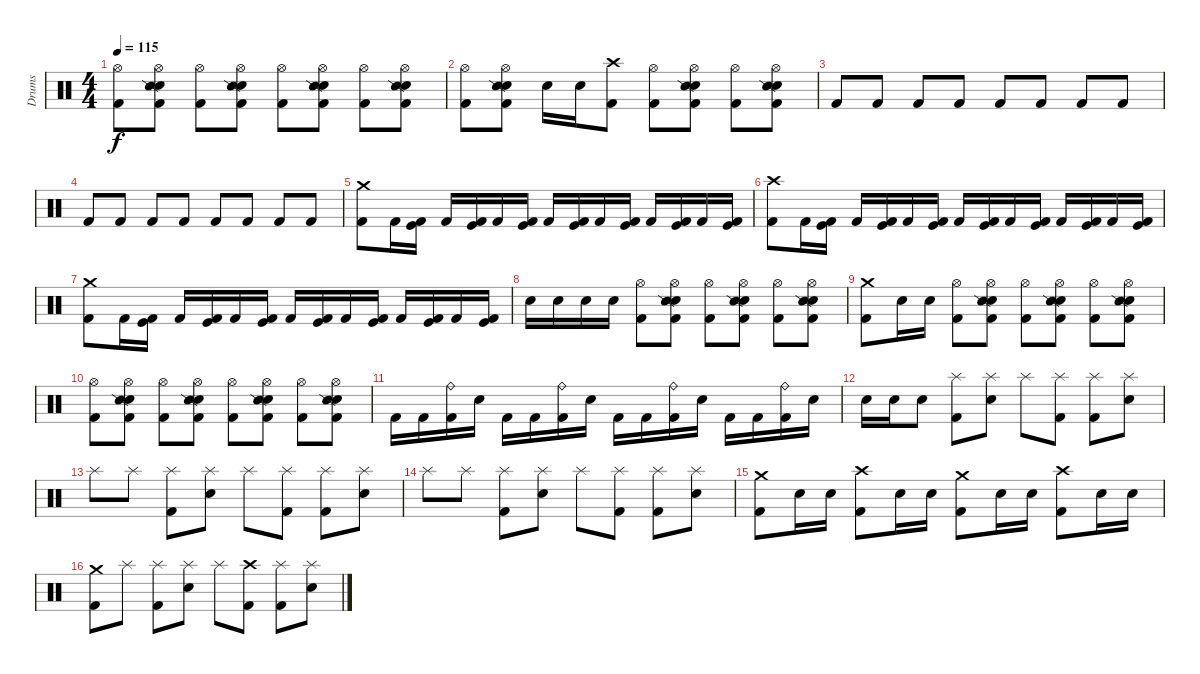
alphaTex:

\track ("Drums" "Drums") {instrument percussion}
\staff {score}
\articulation defaults
\ts (4 4)
\tempo 115
\clef neutral
\ks c
("Hi-Hat (open)" "Kick (hit) 2").8{dy f} ("Hi-Hat (open)" "Electric Snare (hit)" "Snare (side stick) 2" "Kick (hit) 2").8 ("Hi-Hat (open)" "Kick (hit) 2").8 ("Hi-Hat (open)" "Electric Snare (hit)" "Snare (side stick) 2" "Kick (hit) 2").8 ("Hi-Hat (open)" "Kick (hit) 2").8 ("Hi-Hat (open)" "Electric Snare (hit)" "Snare (side stick) 2" "Kick (hit) 2").8 ("Hi-Hat (open)" "Kick (hit) 2").8 ("Hi-Hat (open)" "Electric Snare (hit)" "Snare (side stick) 2" "Kick (hit) 2").8 |
("Hi-Hat (open)" "Kick (hit) 2").8 ("Hi-Hat (open)" "Electric Snare (hit)" "Snare (side stick) 2" "Kick (hit) 2").8 "Electric Snare (hit)".16 "Electric Snare (hit)".16 ("Crash high (hit)" "Kick (hit) 2").8 ("Hi-Hat (open)" "Kick (hit) 2").8 ("Hi-Hat (open)" "Electric Snare (hit)" "Snare (side stick) 2" "Kick (hit) 2").8 ("Hi-Hat (open)" "Kick (hit) 2").8 ("Hi-Hat (open)" "Electric Snare (hit)" "Snare (side stick) 2" "Kick (hit) 2").8 |
"Kick (hit) 2".8 "Kick (hit) 2".8 "Kick (hit) 2".8 "Kick (hit) 2".8 "Kick (hit) 2".8 "Kick (hit) 2".8 "Kick (hit) 2".8 "Kick (hit) 2".8 |
"Kick (hit) 2".8 "Kick (hit) 2".8 "Kick (hit) 2".8 "Kick (hit) 2".8 "Kick (hit) 2".8 "Kick (hit) 2".8 "Kick (hit) 2".8 "Kick (hit) 2".8 |
("Crash medium (hit)" "Kick (hit) 2").8 "Kick (hit) 2".16 ("Kick (hit)" "Kick (hit) 2").16 "Kick (hit) 2".16 ("Kick (hit)" "Kick (hit) 2").16 "Kick (hit) 2".16 ("Kick (hit)" "Kick (hit) 2").16 "Kick (hit) 2".16 ("Kick (hit)" "Kick (hit) 2").16 "Kick (hit) 2".16 ("Kick (hit)" "Kick (hit) 2").16 "Kick (hit) 2".16 ("Kick (hit)" "Kick (hit) 2").16 "Kick (hit) 2".16 ("Kick (hit)" "Kick (hit) 2").16 |
("Crash high (hit)" "Kick (hit) 2").8 "Kick (hit) 2".16 ("Kick (hit)" "Kick (hit) 2").16 "Kick (hit) 2".16 ("Kick (hit)" "Kick (hit) 2").16 "Kick (hit) 2".16 ("Kick (hit)" "Kick (hit) 2").16 "Kick (hit) 2".16 ("Kick (hit)" "Kick (hit) 2").16 "Kick (hit) 2".16 ("Kick (hit)" "Kick (hit) 2").16 "Kick (hit) 2".16 ("Kick (hit)" "Kick (hit) 2").16 "Kick (hit) 2".16 ("Kick (hit)" "Kick (hit) 2").16 |
("Crash medium (hit)" "Kick (hit) 2").8 "Kick (hit) 2".16 ("Kick (hit)" "Kick (hit) 2").16 "Kick (hit) 2".16 ("Kick (hit)" "Kick (hit) 2").16 "Kick (hit) 2".16 ("Kick (hit)" "Kick (hit) 2").16 "Kick (hit) 2".16 ("Kick (hit)" "Kick (hit) 2").16 "Kick (hit) 2".16 ("Kick (hit)" "Kick (hit) 2").16 "Kick (hit) 2".16 ("Kick (hit)" "Kick (hit) 2").16 "Kick (hit) 2".16 ("Kick (hit)" "Kick (hit) 2").16 |
"Electric Snare (hit)".16 "Electric Snare (hit)".16 "Electric Snare (hit)".16 "Electric Snare (hit)".16 ("Hi-Hat (open)" "Kick (hit) 2").8 ("Hi-Hat (open)" "Electric Snare (hit)" "Snare (side stick) 2" "Kick (hit) 2").8 ("Hi-Hat (open)" "Kick (hit) 2").8 ("Hi-Hat (open)" "Electric Snare (hit)" "Snare (side stick) 2" "Kick (hit) 2").8 ("Hi-Hat (open)" "Kick (hit) 2").8 ("Hi-Hat (open)" "Electric Snare (hit)" "Snare (side stick) 2" "Kick (hit) 2").8 |
("Crash medium (hit)" "Kick (hit) 2").8 "Electric Snare (hit)".16 "Electric Snare (hit)".16 ("Hi-Hat (open)" "Kick (hit) 2").8 ("Hi-Hat (open)" "Electric Snare (hit)" "Snare (side stick) 2" "Kick (hit) 2").8 ("Hi-Hat (open)" "Kick (hit) 2").8 ("Hi-Hat (open)" "Electric Snare (hit)" "Snare (side stick) 2" "Kick (hit) 2").8 ("Hi-Hat (open)" "Kick (hit) 2").8 ("Hi-Hat (open)" "Electric Snare (hit)" "Snare (side stick) 2" "Kick (hit) 2").8 |
("Hi-Hat (open)" "Kick (hit) 2").8 ("Hi-Hat (open)" "Electric Snare (hit)" "Snare (side stick) 2" "Kick (hit) 2").8 ("Hi-Hat (open)" "Kick (hit) 2").8 ("Hi-Hat (open)" "Electric Snare (hit)" "Snare (side stick) 2" "Kick (hit) 2").8 ("Hi-Hat (open)" "Kick (hit) 2").8 ("Hi-Hat (open)" "Electric Snare (hit)" "Snare (side stick) 2" "Kick (hit) 2").8 ("Hi-Hat (open)" "Kick (hit) 2").8 ("Hi-Hat (open)" "Electric Snare (hit)" "Snare (side stick) 2" "Kick (hit) 2").8 |
"Kick (hit) 2".16 "Kick (hit) 2".16 ("Ride (bell)" "Kick (hit) 2").16 "Electric Snare (hit)".16 "Kick (hit) 2".16 "Kick (hit) 2".16 ("Ride (bell)" "Kick (hit) 2").16 "Electric Snare (hit)".16 "Kick (hit) 2".16 "Kick (hit) 2".16 ("Ride (bell)" "Kick (hit) 2").16 "Electric Snare (hit)".16 "Kick (hit) 2".16 "Kick (hit) 2".16 ("Ride (bell)" "Kick (hit) 2").16 "Electric Snare (hit)".16 |
"Electric Snare (hit)".16 "Electric Snare (hit)".16 "Electric Snare (hit)".8 ("Splash (hit)" "Kick (hit) 2").8 ("Splash (hit)" "Electric Snare (hit)").8 "Splash (hit)".8 ("Splash (hit)" "Kick (hit) 2").8 ("Splash (hit)" "Kick (hit) 2").8 ("Splash (hit)" "Electric Snare (hit)").8 |
"Splash (hit)".8 "Splash (hit)".8 ("Splash (hit)" "Kick (hit) 2").8 ("Splash (hit)" "Electric Snare (hit)").8 "Splash (hit)".8 ("Splash (hit)" "Kick (hit) 2").8 ("Splash (hit)" "Kick (hit) 2").8 ("Splash (hit)" "Electric Snare (hit)").8 |
"Splash (hit)".8 "Splash (hit)".8 ("Splash (hit)" "Kick (hit) 2").8 ("Splash (hit)" "Electric Snare (hit)").8 "Splash (hit)".8 ("Splash (hit)" "Kick (hit) 2").8 ("Splash (hit)" "Kick (hit) 2").8 ("Splash (hit)" "Electric Snare (hit)").8 |
("Crash medium (hit)" "Kick (hit) 2").8 "Electric Snare (hit)".16 "Electric Snare (hit)".16 ("Crash high (hit)" "Kick (hit) 2").8 "Electric Snare (hit)".16 "Electric Snare (hit)".16 ("Crash medium (hit)" "Kick (hit) 2").8 "Electric Snare (hit)".16 "Electric Snare (hit)".16 ("Crash high (hit)" "Kick (hit) 2").8 "Electric Snare (hit)".16 "Electric Snare (hit)".16 |
("Crash medium (hit)" "Kick (hit) 2").8 "Splash (hit)".8 ("Splash (hit)" "Kick (hit) 2").8 ("Splash (hit)" "Electric Snare (hit)").8 "Splash (hit)".8 ("Crash high (hit)" "Kick (hit) 2").8 ("Splash (hit)" "Kick (hit) 2").8 ("Splash (hit)" "Electric Snare (hit)").8
